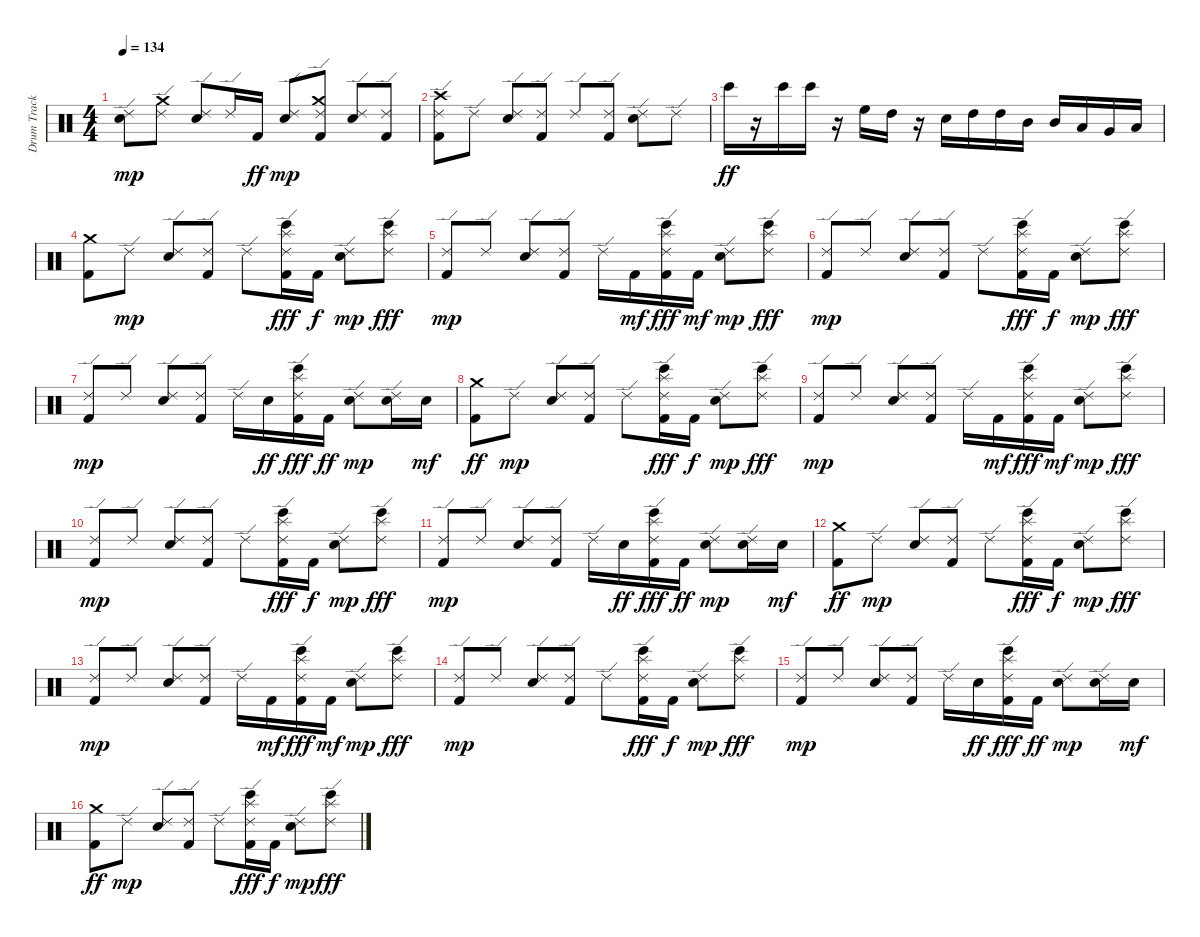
\track ("Drum Track" "Drum Track") {instrument percussion}
\staff {score}
\articulation defaults
\ts (4 4)
\tempo 134
\clef neutral
\ks c
("Electric Snare (hit)" "Ride (edge) 2").8{dy mp} ("Crash medium (hit)" "Ride (edge) 2").8 ("Electric Snare (hit)" "Ride (edge) 2").8 "Ride (edge) 2".16 "Kick (hit) 2".16{dy ff} ("Electric Snare (hit)" "Ride (edge) 2").8{dy mp} ("Kick (hit) 2" "Crash medium (hit)" "Ride (edge) 2").8 ("Electric Snare (hit)" "Ride (edge) 2").8 ("Kick (hit) 2" "Ride (edge) 2").8 |
("Kick (hit) 2" "Crash high (hit)" "Ride (edge) 2").8 "Ride (edge) 2".8 ("Electric Snare (hit)" "Ride (edge) 2").8 ("Kick (hit) 2" "Ride (edge) 2").8 "Ride (edge) 2".8 ("Kick (hit) 2" "Ride (edge) 2").8 ("Electric Snare (hit)" "Ride (edge) 2").8 "Ride (edge) 2".8 |
"Bongo High (hit)".16{dy ff} r.16 "Bongo High (hit)".16 "Bongo High (hit)".16 r.16 "High Floor Tom (hit)".16 "High Tom (hit)".16 r.16 "Electric Snare (hit)".16 "High Tom (hit)".16 "High Tom (hit)".16 "Mid Tom (hit)".16 "Mid Tom (hit)".16 "Low Tom (hit)".16 "Very Low Tom (hit)".16 "Low Floor Tom (hit)".16 |
("Kick (hit) 2" "Crash medium (hit)").8 "Ride (edge) 2".8{dy mp} ("Electric Snare (hit)" "Ride (edge) 2").8 ("Kick (hit) 2" "Ride (edge) 2").8 "Ride (edge) 2".8 ("Kick (hit) 2" "Splash (hit)" "Ride (edge) 2" "Bongo High (hit)").16{dy fff} "Kick (hit) 2".16{dy f} ("Electric Snare (hit)" "Ride (edge) 2").8{dy mp} ("Splash (hit)" "Ride (edge) 2" "Bongo High (hit)").8{dy fff} |
("Kick (hit) 2" "Ride (edge) 2").8{dy mp} "Ride (edge) 2".8 ("Electric Snare (hit)" "Ride (edge) 2").8 ("Kick (hit) 2" "Ride (edge) 2").8 "Ride (edge) 2".16 "Kick (hit) 2".16{dy mf} ("Kick (hit) 2" "Splash (hit)" "Ride (edge) 2" "Bongo High (hit)").16{dy fff} "Kick (hit) 2".16{dy mf} ("Electric Snare (hit)" "Ride (edge) 2").8{dy mp} ("Splash (hit)" "Ride (edge) 2" "Bongo High (hit)").8{dy fff} |
("Kick (hit) 2" "Ride (edge) 2").8{dy mp} "Ride (edge) 2".8 ("Electric Snare (hit)" "Ride (edge) 2").8 ("Kick (hit) 2" "Ride (edge) 2").8 "Ride (edge) 2".8 ("Kick (hit) 2" "Splash (hit)" "Ride (edge) 2" "Bongo High (hit)").16{dy fff} "Kick (hit) 2".16{dy f} ("Electric Snare (hit)" "Ride (edge) 2").8{dy mp} ("Splash (hit)" "Ride (edge) 2" "Bongo High (hit)").8{dy fff} |
("Kick (hit) 2" "Ride (edge) 2").8{dy mp} "Ride (edge) 2".8 ("Electric Snare (hit)" "Ride (edge) 2").8 ("Kick (hit) 2" "Ride (edge) 2").8 "Ride (edge) 2".16 "Electric Snare (hit)".16{dy ff} ("Kick (hit) 2" "Splash (hit)" "Ride (edge) 2" "Bongo High (hit)").16{dy fff} "Kick (hit) 2".16{dy ff} ("Electric Snare (hit)" "Ride (edge) 2").8{dy mp} ("Electric Snare (hit)" "Ride (edge) 2").16 "Electric Snare (hit)".16{dy mf} |
("Kick (hit) 2" "Crash medium (hit)").8{dy ff} "Ride (edge) 2".8{dy mp} ("Electric Snare (hit)" "Ride (edge) 2").8 ("Kick (hit) 2" "Ride (edge) 2").8 "Ride (edge) 2".8 ("Kick (hit) 2" "Splash (hit)" "Ride (edge) 2" "Bongo High (hit)").16{dy fff} "Kick (hit) 2".16{dy f} ("Electric Snare (hit)" "Ride (edge) 2").8{dy mp} ("Splash (hit)" "Ride (edge) 2" "Bongo High (hit)").8{dy fff} |
("Kick (hit) 2" "Ride (edge) 2").8{dy mp} "Ride (edge) 2".8 ("Electric Snare (hit)" "Ride (edge) 2").8 ("Kick (hit) 2" "Ride (edge) 2").8 "Ride (edge) 2".16 "Kick (hit) 2".16{dy mf} ("Kick (hit) 2" "Splash (hit)" "Ride (edge) 2" "Bongo High (hit)").16{dy fff} "Kick (hit) 2".16{dy mf} ("Electric Snare (hit)" "Ride (edge) 2").8{dy mp} ("Splash (hit)" "Ride (edge) 2" "Bongo High (hit)").8{dy fff} |
("Kick (hit) 2" "Ride (edge) 2").8{dy mp} "Ride (edge) 2".8 ("Electric Snare (hit)" "Ride (edge) 2").8 ("Kick (hit) 2" "Ride (edge) 2").8 "Ride (edge) 2".8 ("Kick (hit) 2" "Splash (hit)" "Ride (edge) 2" "Bongo High (hit)").16{dy fff} "Kick (hit) 2".16{dy f} ("Electric Snare (hit)" "Ride (edge) 2").8{dy mp} ("Splash (hit)" "Ride (edge) 2" "Bongo High (hit)").8{dy fff} |
("Kick (hit) 2" "Ride (edge) 2").8{dy mp} "Ride (edge) 2".8 ("Electric Snare (hit)" "Ride (edge) 2").8 ("Kick (hit) 2" "Ride (edge) 2").8 "Ride (edge) 2".16 "Electric Snare (hit)".16{dy ff} ("Kick (hit) 2" "Splash (hit)" "Ride (edge) 2" "Bongo High (hit)").16{dy fff} "Kick (hit) 2".16{dy ff} ("Electric Snare (hit)" "Ride (edge) 2").8{dy mp} ("Electric Snare (hit)" "Ride (edge) 2").16 "Electric Snare (hit)".16{dy mf} |
("Kick (hit) 2" "Crash medium (hit)").8{dy ff} "Ride (edge) 2".8{dy mp} ("Electric Snare (hit)" "Ride (edge) 2").8 ("Kick (hit) 2" "Ride (edge) 2").8 "Ride (edge) 2".8 ("Kick (hit) 2" "Splash (hit)" "Ride (edge) 2" "Bongo High (hit)").16{dy fff} "Kick (hit) 2".16{dy f} ("Electric Snare (hit)" "Ride (edge) 2").8{dy mp} ("Splash (hit)" "Ride (edge) 2" "Bongo High (hit)").8{dy fff} |
("Kick (hit) 2" "Ride (edge) 2").8{dy mp} "Ride (edge) 2".8 ("Electric Snare (hit)" "Ride (edge) 2").8 ("Kick (hit) 2" "Ride (edge) 2").8 "Ride (edge) 2".16 "Kick (hit) 2".16{dy mf} ("Kick (hit) 2" "Splash (hit)" "Ride (edge) 2" "Bongo High (hit)").16{dy fff} "Kick (hit) 2".16{dy mf} ("Electric Snare (hit)" "Ride (edge) 2").8{dy mp} ("Splash (hit)" "Ride (edge) 2" "Bongo High (hit)").8{dy fff} |
("Kick (hit) 2" "Ride (edge) 2").8{dy mp} "Ride (edge) 2".8 ("Electric Snare (hit)" "Ride (edge) 2").8 ("Kick (hit) 2" "Ride (edge) 2").8 "Ride (edge) 2".8 ("Kick (hit) 2" "Splash (hit)" "Ride (edge) 2" "Bongo High (hit)").16{dy fff} "Kick (hit) 2".16{dy f} ("Electric Snare (hit)" "Ride (edge) 2").8{dy mp} ("Splash (hit)" "Ride (edge) 2" "Bongo High (hit)").8{dy fff} |
("Kick (hit) 2" "Ride (edge) 2").8{dy mp} "Ride (edge) 2".8 ("Electric Snare (hit)" "Ride (edge) 2").8 ("Kick (hit) 2" "Ride (edge) 2").8 "Ride (edge) 2".16 "Electric Snare (hit)".16{dy ff} ("Kick (hit) 2" "Splash (hit)" "Ride (edge) 2" "Bongo High (hit)").16{dy fff} "Kick (hit) 2".16{dy ff} ("Electric Snare (hit)" "Ride (edge) 2").8{dy mp} ("Electric Snare (hit)" "Ride (edge) 2").16 "Electric Snare (hit)".16{dy mf} |
("Kick (hit) 2" "Crash medium (hit)").8{dy ff} "Ride (edge) 2".8{dy mp} ("Electric Snare (hit)" "Ride (edge) 2").8 ("Kick (hit) 2" "Ride (edge) 2").8 "Ride (edge) 2".8 ("Kick (hit) 2" "Splash (hit)" "Ride (edge) 2" "Bongo High (hit)").16{dy fff} "Kick (hit) 2".16{dy f} ("Electric Snare (hit)" "Ride (edge) 2").8{dy mp} ("Splash (hit)" "Ride (edge) 2" "Bongo High (hit)").8{dy fff}
